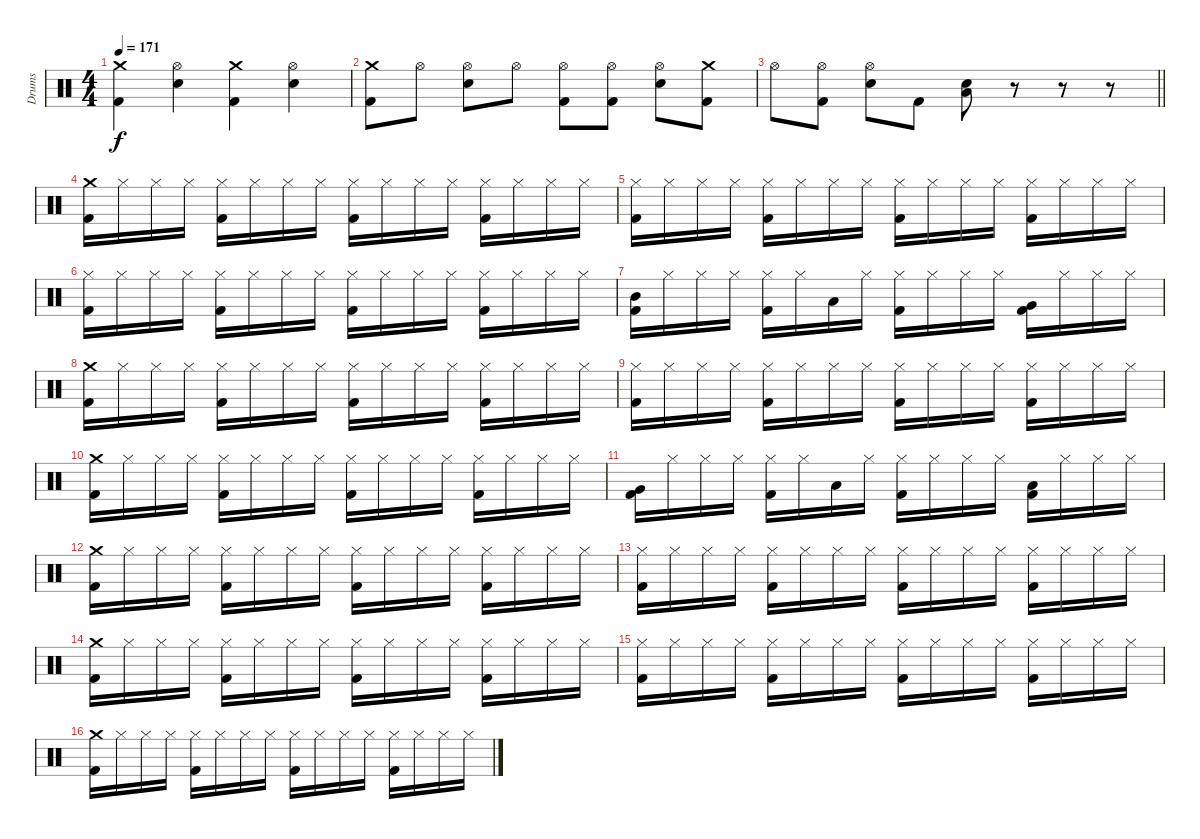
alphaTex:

\track ("Drums" "Drums") {instrument percussion}
\staff {score}
\articulation defaults
\ts (4 4)
\tempo 171
\clef neutral
\ks c
("Crash medium (hit)" "Kick (hit) 2").4{dy f} ("Hi-Hat (open)" "Electric Snare (hit)").4 ("Crash medium (hit)" "Kick (hit) 2").4 ("Hi-Hat (open)" "Electric Snare (hit)").4 |
("Crash medium (hit)" "Kick (hit) 2").8 "Hi-Hat (open)".8 ("Hi-Hat (open)" "Electric Snare (hit)").8 "Hi-Hat (open)".8 ("Hi-Hat (open)" "Kick (hit) 2").8 ("Hi-Hat (open)" "Kick (hit) 2").8 ("Hi-Hat (open)" "Electric Snare (hit)").8 ("Crash medium (hit)" "Kick (hit) 2").8 |
\barLineRight lightlight "Hi-Hat (open)".8
("Hi-Hat (open)" "Kick (hit) 2").8 ("Hi-Hat (open)" "Electric Snare (hit)").8 "Kick (hit) 2".8 ("Electric Snare (hit)" "Low Floor Tom (hit)").8 r.8 r.8 r.8 |
("Crash medium (hit)" "Kick (hit) 2").16 "Hi-Hat (closed)".16 "Hi-Hat (closed)".16 "Hi-Hat (closed)".16 ("Hi-Hat (closed)" "Kick (hit) 2").16 "Hi-Hat (closed)".16 "Hi-Hat (closed)".16 "Hi-Hat (closed)".16 ("Hi-Hat (closed)" "Kick (hit) 2").16 "Hi-Hat (closed)".16 "Hi-Hat (closed)".16 "Hi-Hat (closed)".16 ("Hi-Hat (closed)" "Kick (hit) 2").16 "Hi-Hat (closed)".16 "Hi-Hat (closed)".16 "Hi-Hat (closed)".16 |
("Hi-Hat (closed)" "Kick (hit) 2").16 "Hi-Hat (closed)".16 "Hi-Hat (closed)".16 "Hi-Hat (closed)".16 ("Hi-Hat (closed)" "Kick (hit) 2").16 "Hi-Hat (closed)".16 "Hi-Hat (closed)".16 "Hi-Hat (closed)".16 ("Hi-Hat (closed)" "Kick (hit) 2").16 "Hi-Hat (closed)".16 "Hi-Hat (closed)".16 "Hi-Hat (closed)".16 ("Hi-Hat (closed)" "Kick (hit) 2").16 "Hi-Hat (closed)".16 "Hi-Hat (closed)".16 "Hi-Hat (closed)".16 |
("Hi-Hat (closed)" "Kick (hit) 2").16 "Hi-Hat (closed)".16 "Hi-Hat (closed)".16 "Hi-Hat (closed)".16 ("Hi-Hat (closed)" "Kick (hit) 2").16 "Hi-Hat (closed)".16 "Hi-Hat (closed)".16 "Hi-Hat (closed)".16 ("Hi-Hat (closed)" "Kick (hit) 2").16 "Hi-Hat (closed)".16 "Hi-Hat (closed)".16 "Hi-Hat (closed)".16 ("Hi-Hat (closed)" "Kick (hit) 2").16 "Hi-Hat (closed)".16 "Hi-Hat (closed)".16 "Hi-Hat (closed)".16 |
("Mid Tom (hit)" "Kick (hit) 2").16 "Hi-Hat (closed)".16 "Hi-Hat (closed)".16 "Hi-Hat (closed)".16 ("Hi-Hat (closed)" "Kick (hit) 2").16 "Hi-Hat (closed)".16 "Low Tom (hit)".16 "Hi-Hat (closed)".16 ("Hi-Hat (closed)" "Kick (hit) 2").16 "Hi-Hat (closed)".16 "Hi-Hat (closed)".16 "Hi-Hat (closed)".16 ("Very Low Tom (hit)" "Kick (hit) 2").16 "Hi-Hat (closed)".16 "Hi-Hat (closed)".16 "Hi-Hat (closed)".16 |
("Crash medium (hit)" "Kick (hit) 2").16 "Hi-Hat (closed)".16 "Hi-Hat (closed)".16 "Hi-Hat (closed)".16 ("Hi-Hat (closed)" "Kick (hit) 2").16 "Hi-Hat (closed)".16 "Hi-Hat (closed)".16 "Hi-Hat (closed)".16 ("Hi-Hat (closed)" "Kick (hit) 2").16 "Hi-Hat (closed)".16 "Hi-Hat (closed)".16 "Hi-Hat (closed)".16 ("Hi-Hat (closed)" "Kick (hit) 2").16 "Hi-Hat (closed)".16 "Hi-Hat (closed)".16 "Hi-Hat (closed)".16 |
("Hi-Hat (closed)" "Kick (hit) 2").16 "Hi-Hat (closed)".16 "Hi-Hat (closed)".16 "Hi-Hat (closed)".16 ("Hi-Hat (closed)" "Kick (hit) 2").16 "Hi-Hat (closed)".16 "Hi-Hat (closed)".16 "Hi-Hat (closed)".16 ("Hi-Hat (closed)" "Kick (hit) 2").16 "Hi-Hat (closed)".16 "Hi-Hat (closed)".16 "Hi-Hat (closed)".16 ("Hi-Hat (closed)" "Kick (hit) 2").16 "Hi-Hat (closed)".16 "Hi-Hat (closed)".16 "Hi-Hat (closed)".16 |
("Crash medium (hit)" "Kick (hit) 2").16 "Hi-Hat (closed)".16 "Hi-Hat (closed)".16 "Hi-Hat (closed)".16 ("Hi-Hat (closed)" "Kick (hit) 2").16 "Hi-Hat (closed)".16 "Hi-Hat (closed)".16 "Hi-Hat (closed)".16 ("Hi-Hat (closed)" "Kick (hit) 2").16 "Hi-Hat (closed)".16 "Hi-Hat (closed)".16 "Hi-Hat (closed)".16 ("Hi-Hat (closed)" "Kick (hit) 2").16 "Hi-Hat (closed)".16 "Hi-Hat (closed)".16 "Hi-Hat (closed)".16 |
("Very Low Tom (hit)" "Kick (hit) 2").16 "Hi-Hat (closed)".16 "Hi-Hat (closed)".16 "Hi-Hat (closed)".16 ("Hi-Hat (closed)" "Kick (hit) 2").16 "Hi-Hat (closed)".16 "Low Floor Tom (hit)".16 "Hi-Hat (closed)".16 ("Hi-Hat (closed)" "Kick (hit) 2").16 "Hi-Hat (closed)".16 "Hi-Hat (closed)".16 "Hi-Hat (closed)".16 ("Low Floor Tom (hit)" "Kick (hit) 2").16 "Hi-Hat (closed)".16 "Hi-Hat (closed)".16 "Hi-Hat (closed)".16 |
("Crash medium (hit)" "Kick (hit) 2").16 "Hi-Hat (closed)".16 "Hi-Hat (closed)".16 "Hi-Hat (closed)".16 ("Hi-Hat (closed)" "Kick (hit) 2").16 "Hi-Hat (closed)".16 "Hi-Hat (closed)".16 "Hi-Hat (closed)".16 ("Hi-Hat (closed)" "Kick (hit) 2").16 "Hi-Hat (closed)".16 "Hi-Hat (closed)".16 "Hi-Hat (closed)".16 ("Hi-Hat (closed)" "Kick (hit) 2").16 "Hi-Hat (closed)".16 "Hi-Hat (closed)".16 "Hi-Hat (closed)".16 |
("Hi-Hat (closed)" "Kick (hit) 2").16 "Hi-Hat (closed)".16 "Hi-Hat (closed)".16 "Hi-Hat (closed)".16 ("Hi-Hat (closed)" "Kick (hit) 2").16 "Hi-Hat (closed)".16 "Hi-Hat (closed)".16 "Hi-Hat (closed)".16 ("Hi-Hat (closed)" "Kick (hit) 2").16 "Hi-Hat (closed)".16 "Hi-Hat (closed)".16 "Hi-Hat (closed)".16 ("Hi-Hat (closed)" "Kick (hit) 2").16 "Hi-Hat (closed)".16 "Hi-Hat (closed)".16 "Hi-Hat (closed)".16 |
("Crash medium (hit)" "Kick (hit) 2").16 "Hi-Hat (closed)".16 "Hi-Hat (closed)".16 "Hi-Hat (closed)".16 ("Hi-Hat (closed)" "Kick (hit) 2").16 "Hi-Hat (closed)".16 "Hi-Hat (closed)".16 "Hi-Hat (closed)".16 ("Hi-Hat (closed)" "Kick (hit) 2").16 "Hi-Hat (closed)".16 "Hi-Hat (closed)".16 "Hi-Hat (closed)".16 ("Hi-Hat (closed)" "Kick (hit) 2").16 "Hi-Hat (closed)".16 "Hi-Hat (closed)".16 "Hi-Hat (closed)".16 |
("Hi-Hat (closed)" "Kick (hit) 2").16 "Hi-Hat (closed)".16 "Hi-Hat (closed)".16 "Hi-Hat (closed)".16 ("Hi-Hat (closed)" "Kick (hit) 2").16 "Hi-Hat (closed)".16 "Hi-Hat (closed)".16 "Hi-Hat (closed)".16 ("Hi-Hat (closed)" "Kick (hit) 2").16 "Hi-Hat (closed)".16 "Hi-Hat (closed)".16 "Hi-Hat (closed)".16 ("Hi-Hat (closed)" "Kick (hit) 2").16 "Hi-Hat (closed)".16 "Hi-Hat (closed)".16 "Hi-Hat (closed)".16 |
("Crash medium (hit)" "Kick (hit) 2").16 "Hi-Hat (closed)".16 "Hi-Hat (closed)".16 "Hi-Hat (closed)".16 ("Hi-Hat (closed)" "Kick (hit) 2").16 "Hi-Hat (closed)".16 "Hi-Hat (closed)".16 "Hi-Hat (closed)".16 ("Hi-Hat (closed)" "Kick (hit) 2").16 "Hi-Hat (closed)".16 "Hi-Hat (closed)".16 "Hi-Hat (closed)".16 ("Hi-Hat (closed)" "Kick (hit) 2").16 "Hi-Hat (closed)".16 "Hi-Hat (closed)".16 "Hi-Hat (closed)".16
